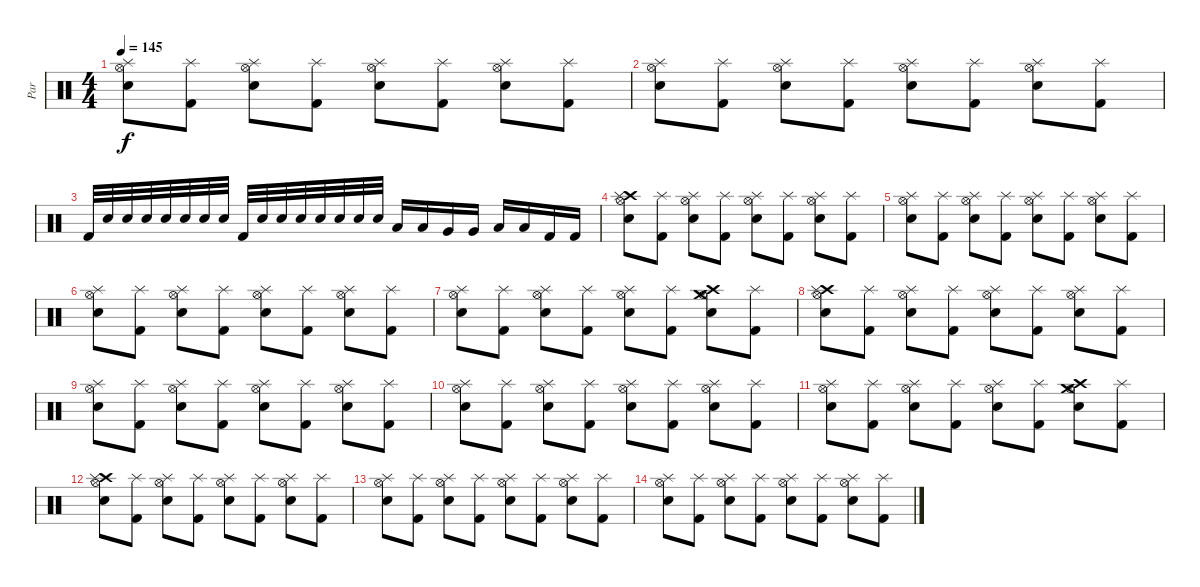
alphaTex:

\track ("Par" "Par") {instrument percussion}
\staff {score}
\articulation defaults
\ts (4 4)
\tempo 145
\clef neutral
\ks c
("Splash (hit)" "Hi-Hat (open)" "Snare (hit) 2").8{dy f} ("Splash (hit)" "Kick (hit) 2").8 ("Splash (hit)" "Hi-Hat (open)" "Snare (hit) 2").8 ("Splash (hit)" "Kick (hit) 2").8 ("Splash (hit)" "Hi-Hat (open)" "Snare (hit) 2").8 ("Splash (hit)" "Kick (hit) 2").8 ("Splash (hit)" "Hi-Hat (open)" "Snare (hit) 2").8 ("Splash (hit)" "Kick (hit) 2").8 |
("Splash (hit)" "Hi-Hat (open)" "Snare (hit) 2").8 ("Splash (hit)" "Kick (hit) 2").8 ("Splash (hit)" "Hi-Hat (open)" "Snare (hit) 2").8 ("Splash (hit)" "Kick (hit) 2").8 ("Splash (hit)" "Hi-Hat (open)" "Snare (hit) 2").8 ("Splash (hit)" "Kick (hit) 2").8 ("Splash (hit)" "Hi-Hat (open)" "Snare (hit) 2").8 ("Splash (hit)" "Kick (hit) 2").8 |
"Kick (hit) 2".32 "Snare (hit) 2".32 "Snare (hit) 2".32 "Snare (hit) 2".32 "Snare (hit) 2".32 "Snare (hit) 2".32 "Snare (hit) 2".32 "Snare (hit) 2".32 "Kick (hit) 2".32 "Snare (hit) 2".32 "Snare (hit) 2".32 "Snare (hit) 2".32 "Snare (hit) 2".32 "Snare (hit) 2".32 "Snare (hit) 2".32 "Snare (hit) 2".32 "Low Tom (hit)".16 "Low Tom (hit)".16 "Very Low Tom (hit)".16 "Very Low Tom (hit)".16 "Low Floor Tom (hit)".16 "Low Floor Tom (hit)".16 "Kick (hit) 2".16 "Kick (hit) 2".16 |
("Crash high (hit)" "Splash (hit)" "Hi-Hat (open)" "Snare (hit) 2").8 ("Splash (hit)" "Kick (hit) 2").8 ("Splash (hit)" "Hi-Hat (open)" "Snare (hit) 2").8 ("Splash (hit)" "Kick (hit) 2").8 ("Splash (hit)" "Hi-Hat (open)" "Snare (hit) 2").8 ("Splash (hit)" "Kick (hit) 2").8 ("Splash (hit)" "Hi-Hat (open)" "Snare (hit) 2").8 ("Splash (hit)" "Kick (hit) 2").8 |
("Splash (hit)" "Hi-Hat (open)" "Snare (hit) 2").8 ("Splash (hit)" "Kick (hit) 2").8 ("Splash (hit)" "Hi-Hat (open)" "Snare (hit) 2").8 ("Splash (hit)" "Kick (hit) 2").8 ("Splash (hit)" "Hi-Hat (open)" "Snare (hit) 2").8 ("Splash (hit)" "Kick (hit) 2").8 ("Splash (hit)" "Hi-Hat (open)" "Snare (hit) 2").8 ("Splash (hit)" "Kick (hit) 2").8 |
("Splash (hit)" "Hi-Hat (open)" "Snare (hit) 2").8 ("Splash (hit)" "Kick (hit) 2").8 ("Splash (hit)" "Hi-Hat (open)" "Snare (hit) 2").8 ("Splash (hit)" "Kick (hit) 2").8 ("Splash (hit)" "Hi-Hat (open)" "Snare (hit) 2").8 ("Splash (hit)" "Kick (hit) 2").8 ("Splash (hit)" "Hi-Hat (open)" "Snare (hit) 2").8 ("Splash (hit)" "Kick (hit) 2").8 |
("Splash (hit)" "Hi-Hat (open)" "Snare (hit) 2").8{volume 7} ("Splash (hit)" "Kick (hit) 2").8 ("Splash (hit)" "Hi-Hat (open)" "Snare (hit) 2").8 ("Splash (hit)" "Kick (hit) 2").8 ("Splash (hit)" "Hi-Hat (open)" "Snare (hit) 2").8 ("Splash (hit)" "Kick (hit) 2").8 ("Crash medium (hit)" "Crash high (hit)" "Hi-Hat (open)" "Snare (hit) 2").8 ("Splash (hit)" "Kick (hit) 2").8 |
("Crash high (hit)" "Splash (hit)" "Hi-Hat (open)" "Snare (hit) 2").8 ("Splash (hit)" "Kick (hit) 2").8 ("Splash (hit)" "Hi-Hat (open)" "Snare (hit) 2").8 ("Splash (hit)" "Kick (hit) 2").8 ("Splash (hit)" "Hi-Hat (open)" "Snare (hit) 2").8 ("Splash (hit)" "Kick (hit) 2").8 ("Splash (hit)" "Hi-Hat (open)" "Snare (hit) 2").8 ("Splash (hit)" "Kick (hit) 2").8 |
("Splash (hit)" "Hi-Hat (open)" "Snare (hit) 2").8 ("Splash (hit)" "Kick (hit) 2").8 ("Splash (hit)" "Hi-Hat (open)" "Snare (hit) 2").8 ("Splash (hit)" "Kick (hit) 2").8 ("Splash (hit)" "Hi-Hat (open)" "Snare (hit) 2").8 ("Splash (hit)" "Kick (hit) 2").8 ("Splash (hit)" "Hi-Hat (open)" "Snare (hit) 2").8 ("Splash (hit)" "Kick (hit) 2").8 |
("Splash (hit)" "Hi-Hat (open)" "Snare (hit) 2").8{volume 3} ("Splash (hit)" "Kick (hit) 2").8 ("Splash (hit)" "Hi-Hat (open)" "Snare (hit) 2").8 ("Splash (hit)" "Kick (hit) 2").8 ("Splash (hit)" "Hi-Hat (open)" "Snare (hit) 2").8 ("Splash (hit)" "Kick (hit) 2").8 ("Splash (hit)" "Hi-Hat (open)" "Snare (hit) 2").8 ("Splash (hit)" "Kick (hit) 2").8 |
("Splash (hit)" "Hi-Hat (open)" "Snare (hit) 2").8 ("Splash (hit)" "Kick (hit) 2").8 ("Splash (hit)" "Hi-Hat (open)" "Snare (hit) 2").8 ("Splash (hit)" "Kick (hit) 2").8 ("Splash (hit)" "Hi-Hat (open)" "Snare (hit) 2").8 ("Splash (hit)" "Kick (hit) 2").8 ("Crash medium (hit)" "Crash high (hit)" "Hi-Hat (open)" "Snare (hit) 2").8 ("Splash (hit)" "Kick (hit) 2").8 |
("Crash high (hit)" "Splash (hit)" "Hi-Hat (open)" "Snare (hit) 2").8 ("Splash (hit)" "Kick (hit) 2").8 ("Splash (hit)" "Hi-Hat (open)" "Snare (hit) 2").8 ("Splash (hit)" "Kick (hit) 2").8 ("Splash (hit)" "Hi-Hat (open)" "Snare (hit) 2").8 ("Splash (hit)" "Kick (hit) 2").8 ("Splash (hit)" "Hi-Hat (open)" "Snare (hit) 2").8 ("Splash (hit)" "Kick (hit) 2").8 |
("Splash (hit)" "Hi-Hat (open)" "Snare (hit) 2").8 ("Splash (hit)" "Kick (hit) 2").8 ("Splash (hit)" "Hi-Hat (open)" "Snare (hit) 2").8 ("Splash (hit)" "Kick (hit) 2").8 ("Splash (hit)" "Hi-Hat (open)" "Snare (hit) 2").8 ("Splash (hit)" "Kick (hit) 2").8 ("Splash (hit)" "Hi-Hat (open)" "Snare (hit) 2").8 ("Splash (hit)" "Kick (hit) 2").8 |
("Splash (hit)" "Hi-Hat (open)" "Snare (hit) 2").8 ("Splash (hit)" "Kick (hit) 2").8 ("Splash (hit)" "Hi-Hat (open)" "Snare (hit) 2").8 ("Splash (hit)" "Kick (hit) 2").8 ("Splash (hit)" "Hi-Hat (open)" "Snare (hit) 2").8 ("Splash (hit)" "Kick (hit) 2").8 ("Splash (hit)" "Hi-Hat (open)" "Snare (hit) 2").8 ("Splash (hit)" "Kick (hit) 2").8
